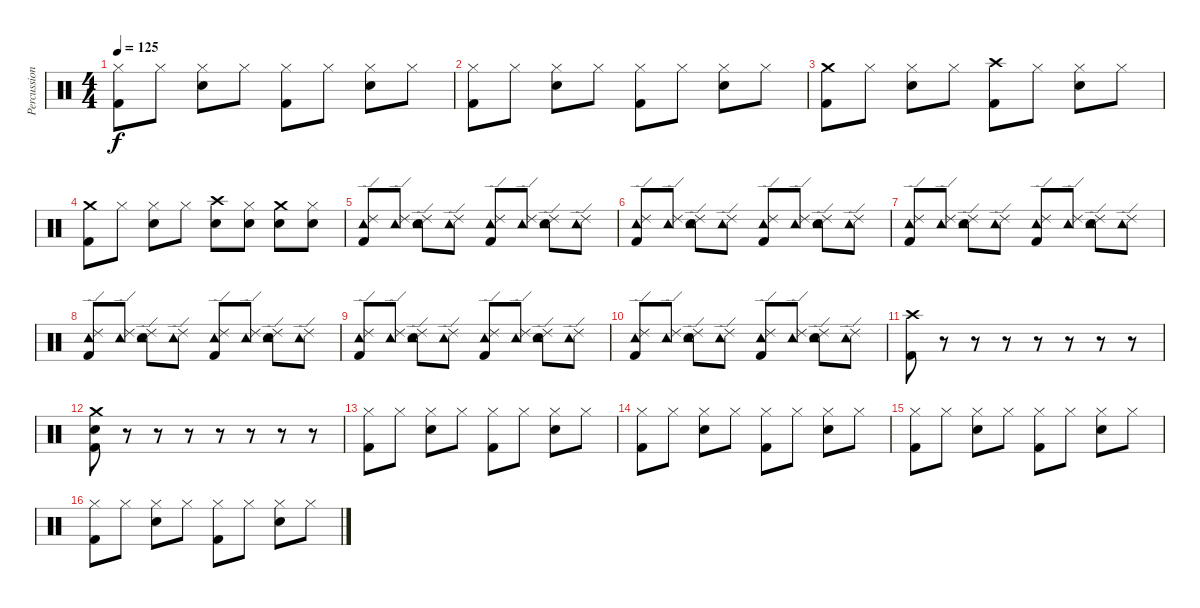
\track ("Percussions" "Percussion") {instrument percussion}
\staff {score}
\articulation defaults
\ts (4 4)
\tempo 125
\clef neutral
\ks c
("Hi-Hat (closed)" "Kick (hit) 2").8{dy f} "Hi-Hat (closed)".8 ("Hi-Hat (closed)" "Snare (hit) 2").8 "Hi-Hat (closed)".8 ("Hi-Hat (closed)" "Kick (hit) 2").8 "Hi-Hat (closed)".8 ("Hi-Hat (closed)" "Snare (hit) 2").8 "Hi-Hat (closed)".8 |
("Hi-Hat (closed)" "Kick (hit) 2").8 "Hi-Hat (closed)".8 ("Hi-Hat (closed)" "Snare (hit) 2").8 "Hi-Hat (closed)".8 ("Hi-Hat (closed)" "Kick (hit) 2").8 "Hi-Hat (closed)".8 ("Hi-Hat (closed)" "Snare (hit) 2").8 "Hi-Hat (closed)".8 |
("Crash medium (hit)" "Kick (hit) 2").8 "Hi-Hat (closed)".8 ("Hi-Hat (closed)" "Snare (hit) 2").8 "Hi-Hat (closed)".8 ("Crash high (hit)" "Kick (hit) 2").8 "Hi-Hat (closed)".8 ("Hi-Hat (closed)" "Snare (hit) 2").8 "Hi-Hat (closed)".8 |
("Crash medium (hit)" "Kick (hit) 2").8 "Hi-Hat (closed)".8 ("Hi-Hat (closed)" "Snare (hit) 2").8 "Hi-Hat (closed)".8 ("Crash high (hit)" "Snare (hit) 2").8 ("Hi-Hat (closed)" "Snare (hit) 2").8 ("Crash medium (hit)" "Snare (hit) 2").8 ("Hi-Hat (closed)" "Snare (hit) 2").8 |
("Ride (edge) 2" "Kick (hit) 2" "Tambourine (hit)").8 ("Ride (edge) 2" "Tambourine (hit)").8 ("Ride (edge) 2" "Snare (hit) 2" "Tambourine (hit)").8 ("Ride (edge) 2" "Tambourine (hit)").8 ("Ride (edge) 2" "Kick (hit) 2" "Tambourine (hit)").8 ("Ride (edge) 2" "Tambourine (hit)").8 ("Ride (edge) 2" "Snare (hit) 2" "Tambourine (hit)").8 ("Ride (edge) 2" "Tambourine (hit)").8 |
("Ride (edge) 2" "Kick (hit) 2" "Tambourine (hit)").8 ("Ride (edge) 2" "Tambourine (hit)").8 ("Ride (edge) 2" "Snare (hit) 2" "Tambourine (hit)").8 ("Ride (edge) 2" "Tambourine (hit)").8 ("Ride (edge) 2" "Kick (hit) 2" "Tambourine (hit)").8 ("Ride (edge) 2" "Tambourine (hit)").8 ("Ride (edge) 2" "Snare (hit) 2" "Tambourine (hit)").8 ("Ride (edge) 2" "Tambourine (hit)").8 |
("Ride (edge) 2" "Kick (hit) 2" "Tambourine (hit)").8 ("Ride (edge) 2" "Tambourine (hit)").8 ("Ride (edge) 2" "Snare (hit) 2" "Tambourine (hit)").8 ("Ride (edge) 2" "Tambourine (hit)").8 ("Ride (edge) 2" "Kick (hit) 2" "Tambourine (hit)").8 ("Ride (edge) 2" "Tambourine (hit)").8 ("Ride (edge) 2" "Snare (hit) 2" "Tambourine (hit)").8 ("Ride (edge) 2" "Tambourine (hit)").8 |
("Ride (edge) 2" "Kick (hit) 2" "Tambourine (hit)").8 ("Ride (edge) 2" "Tambourine (hit)").8 ("Ride (edge) 2" "Snare (hit) 2" "Tambourine (hit)").8 ("Ride (edge) 2" "Tambourine (hit)").8 ("Ride (edge) 2" "Kick (hit) 2" "Tambourine (hit)").8 ("Ride (edge) 2" "Tambourine (hit)").8 ("Ride (edge) 2" "Snare (hit) 2" "Tambourine (hit)").8 ("Ride (edge) 2" "Tambourine (hit)").8 |
("Ride (edge) 2" "Kick (hit) 2" "Tambourine (hit)").8 ("Ride (edge) 2" "Tambourine (hit)").8 ("Ride (edge) 2" "Snare (hit) 2" "Tambourine (hit)").8 ("Ride (edge) 2" "Tambourine (hit)").8 ("Ride (edge) 2" "Kick (hit) 2" "Tambourine (hit)").8 ("Ride (edge) 2" "Tambourine (hit)").8 ("Ride (edge) 2" "Snare (hit) 2" "Tambourine (hit)").8 ("Ride (edge) 2" "Tambourine (hit)").8 |
("Ride (edge) 2" "Kick (hit) 2" "Tambourine (hit)").8 ("Ride (edge) 2" "Tambourine (hit)").8 ("Ride (edge) 2" "Snare (hit) 2" "Tambourine (hit)").8 ("Ride (edge) 2" "Tambourine (hit)").8 ("Ride (edge) 2" "Kick (hit) 2" "Tambourine (hit)").8 ("Ride (edge) 2" "Tambourine (hit)").8 ("Ride (edge) 2" "Snare (hit) 2" "Tambourine (hit)").8 ("Ride (edge) 2" "Tambourine (hit)").8 |
("Crash high (hit)" "Kick (hit) 2").8 r.8 r.8 r.8 r.8 r.8 r.8 r.8 |
("Crash medium (hit)" "Snare (hit) 2" "Kick (hit) 2").8 r.8 r.8 r.8 r.8 r.8 r.8 r.8 |
("Hi-Hat (closed)" "Kick (hit) 2").8 "Hi-Hat (closed)".8 ("Hi-Hat (closed)" "Snare (hit) 2").8 "Hi-Hat (closed)".8 ("Hi-Hat (closed)" "Kick (hit) 2").8 "Hi-Hat (closed)".8 ("Hi-Hat (closed)" "Snare (hit) 2").8 "Hi-Hat (closed)".8 |
("Hi-Hat (closed)" "Kick (hit) 2").8 "Hi-Hat (closed)".8 ("Hi-Hat (closed)" "Snare (hit) 2").8 "Hi-Hat (closed)".8 ("Hi-Hat (closed)" "Kick (hit) 2").8 "Hi-Hat (closed)".8 ("Hi-Hat (closed)" "Snare (hit) 2").8 "Hi-Hat (closed)".8 |
("Hi-Hat (closed)" "Kick (hit) 2").8 "Hi-Hat (closed)".8 ("Hi-Hat (closed)" "Snare (hit) 2").8 "Hi-Hat (closed)".8 ("Hi-Hat (closed)" "Kick (hit) 2").8 "Hi-Hat (closed)".8 ("Hi-Hat (closed)" "Snare (hit) 2").8 "Hi-Hat (closed)".8 |
("Hi-Hat (closed)" "Kick (hit) 2").8 "Hi-Hat (closed)".8 ("Hi-Hat (closed)" "Snare (hit) 2").8 "Hi-Hat (closed)".8 ("Hi-Hat (closed)" "Kick (hit) 2").8 "Hi-Hat (closed)".8 ("Hi-Hat (closed)" "Snare (hit) 2").8 "Hi-Hat (closed)".8
